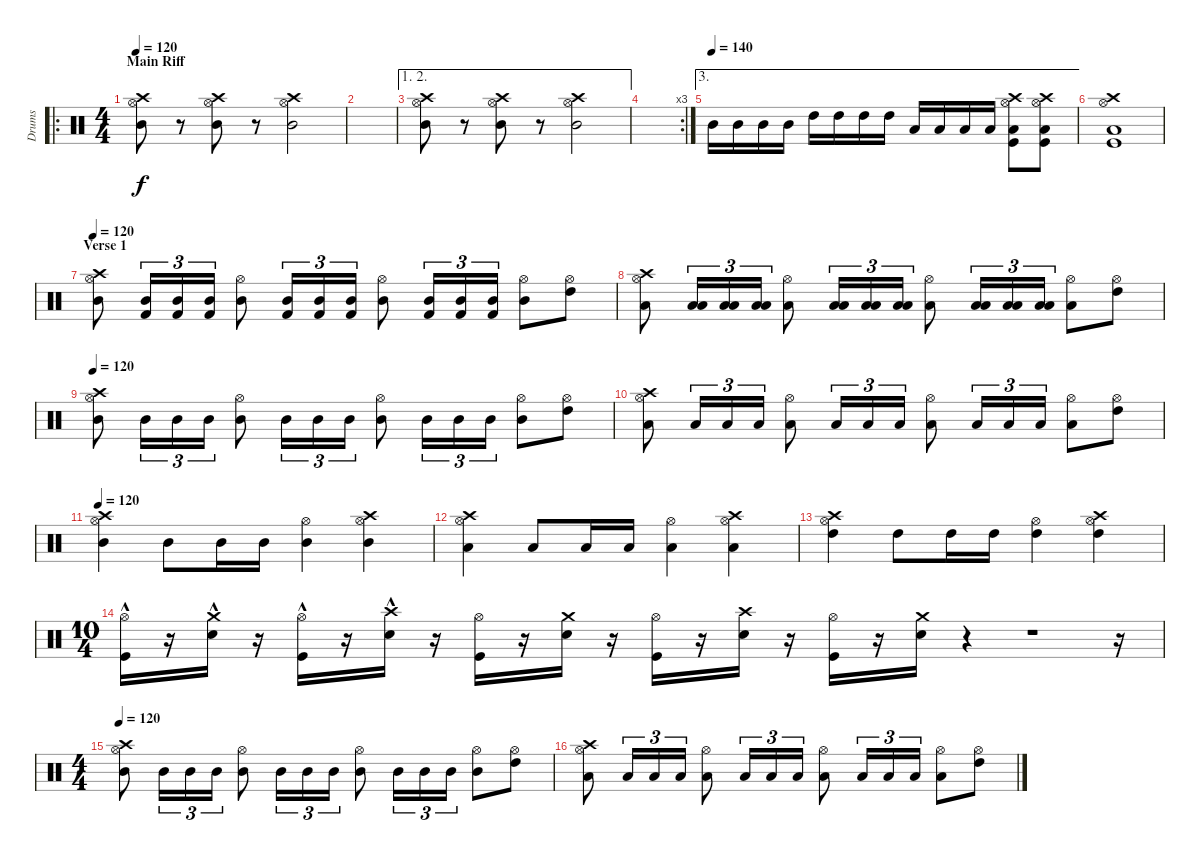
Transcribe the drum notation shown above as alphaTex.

\track ("Drums" "Drums") {instrument percussion}
\staff {score}
\articulation defaults
\ro
\ts (4 4)
\section ("" "Main Riff")
\tempo 120
\tempo 140
\tempo 120
\clef neutral
\ks c
("Hi-Hat (open)" "Crash high (hit)" "Mid Tom (hit)").8{dy f} r.8 ("Hi-Hat (open)" "Crash high (hit)" "Mid Tom (hit)").8 r.8 ("Hi-Hat (open)" "Crash high (hit)" "Mid Tom (hit)").2 |
|
\ae (1 2)
("Hi-Hat (open)" "Crash high (hit)" "Mid Tom (hit)").8 r.8 ("Hi-Hat (open)" "Crash high (hit)" "Mid Tom (hit)").8 r.8 ("Hi-Hat (open)" "Crash high (hit)" "Mid Tom (hit)").2 |
\rc 3
|
\ae 3
\tempo (140)
"Mid Tom (hit)".16 "Mid Tom (hit)".16 "Mid Tom (hit)".16 "Mid Tom (hit)".16 "High Tom (hit)".16 "High Tom (hit)".16 "High Tom (hit)".16 "High Tom (hit)".16 "Low Tom (hit)".16 "Low Tom (hit)".16 "Low Tom (hit)".16 "Low Tom (hit)".16 ("Kick (hit)" "Low Tom (hit)" "Crash high (hit)" "Hi-Hat (open)").8 ("Kick (hit)" "Low Tom (hit)" "Crash high (hit)" "Hi-Hat (open)").8 |
("Kick (hit)" "Low Tom (hit)" "Crash high (hit)" "Hi-Hat (open)").1 |
\section ("" "Verse 1")
\tempo 120
("Hi-Hat (open)" "Mid Tom (hit)" "Crash high (hit)").8 ("Kick (hit) 2" "Mid Tom (hit)").16{tu (3 2)} ("Kick (hit) 2" "Mid Tom (hit)").16{tu (3 2)} ("Kick (hit) 2" "Mid Tom (hit)").16{tu (3 2)} ("Hi-Hat (open)" "Mid Tom (hit)").8 ("Kick (hit) 2" "Mid Tom (hit)").16{tu (3 2)} ("Kick (hit) 2" "Mid Tom (hit)").16{tu (3 2)} ("Kick (hit) 2" "Mid Tom (hit)").16{tu (3 2)} ("Hi-Hat (open)" "Mid Tom (hit)").8 ("Kick (hit) 2" "Mid Tom (hit)").16{tu (3 2)} ("Kick (hit) 2" "Mid Tom (hit)").16{tu (3 2)} ("Kick (hit) 2" "Mid Tom (hit)").16{tu (3 2)} ("Hi-Hat (open)" "Mid Tom (hit)").8 ("Hi-Hat (open)" "High Tom (hit)").8 |
("Hi-Hat (open)" "Low Tom (hit)" "Crash high (hit)").8 ("Low Tom (hit)" "Low Tom (hit)").16{tu (3 2)} ("Low Tom (hit)" "Low Tom (hit)").16{tu (3 2)} ("Low Tom (hit)" "Low Tom (hit)").16{tu (3 2)} ("Hi-Hat (open)" "Low Tom (hit)").8 ("Low Tom (hit)" "Low Tom (hit)").16{tu (3 2)} ("Low Tom (hit)" "Low Tom (hit)").16{tu (3 2)} ("Low Tom (hit)" "Low Tom (hit)").16{tu (3 2)} ("Hi-Hat (open)" "Low Tom (hit)").8 ("Low Tom (hit)" "Low Tom (hit)").16{tu (3 2)} ("Low Tom (hit)" "Low Tom (hit)").16{tu (3 2)} ("Low Tom (hit)" "Low Tom (hit)").16{tu (3 2)} ("Hi-Hat (open)" "Low Tom (hit)").8 ("Hi-Hat (open)" "High Tom (hit)").8 |
\tempo 120
("Hi-Hat (open)" "Mid Tom (hit)" "Crash high (hit)").8 "Mid Tom (hit)".16{tu (3 2)} "Mid Tom (hit)".16{tu (3 2)} "Mid Tom (hit)".16{tu (3 2)} ("Hi-Hat (open)" "Mid Tom (hit)").8 "Mid Tom (hit)".16{tu (3 2)} "Mid Tom (hit)".16{tu (3 2)} "Mid Tom (hit)".16{tu (3 2)} ("Hi-Hat (open)" "Mid Tom (hit)").8 "Mid Tom (hit)".16{tu (3 2)} "Mid Tom (hit)".16{tu (3 2)} "Mid Tom (hit)".16{tu (3 2)} ("Hi-Hat (open)" "Mid Tom (hit)").8 ("Hi-Hat (open)" "High Tom (hit)").8 |
("Hi-Hat (open)" "Low Tom (hit)" "Crash high (hit)").8 "Low Tom (hit)".16{tu (3 2)} "Low Tom (hit)".16{tu (3 2)} "Low Tom (hit)".16{tu (3 2)} ("Hi-Hat (open)" "Low Tom (hit)").8 "Low Tom (hit)".16{tu (3 2)} "Low Tom (hit)".16{tu (3 2)} "Low Tom (hit)".16{tu (3 2)} ("Hi-Hat (open)" "Low Tom (hit)").8 "Low Tom (hit)".16{tu (3 2)} "Low Tom (hit)".16{tu (3 2)} "Low Tom (hit)".16{tu (3 2)} ("Hi-Hat (open)" "Low Tom (hit)").8 ("Hi-Hat (open)" "High Tom (hit)").8 |
\tempo 120
("Hi-Hat (open)" "Mid Tom (hit)" "Crash high (hit)").4 "Mid Tom (hit)".8 "Mid Tom (hit)".16 "Mid Tom (hit)".16 ("Hi-Hat (open)" "Mid Tom (hit)").4 ("Hi-Hat (open)" "Mid Tom (hit)" "Crash high (hit)").4 |
("Hi-Hat (open)" "Low Tom (hit)" "Crash high (hit)").4 "Low Tom (hit)".8 "Low Tom (hit)".16 "Low Tom (hit)".16 ("Hi-Hat (open)" "Low Tom (hit)").4 ("Hi-Hat (open)" "Low Tom (hit)" "Crash high (hit)").4 |
("Hi-Hat (open)" "High Tom (hit)" "Crash high (hit)").4 "High Tom (hit)".8 "High Tom (hit)".16 "High Tom (hit)".16 ("Hi-Hat (open)" "High Tom (hit)").4 ("Hi-Hat (open)" "High Tom (hit)" "Crash high (hit)").4 |
\ts (10 4)
("Hi-Hat (open)" "Kick (hit)"{hac}).16 r.16 ("Crash medium (hit)" "Snare (hit) 2"{hac}).16 r.16 ("Hi-Hat (open)" "Kick (hit)"{hac}).16 r.16 ("Crash high (hit)" "Snare (hit) 2"{hac}).16 r.16 ("Hi-Hat (open)" "Kick (hit)").16 r.16 ("Crash medium (hit)" "Snare (hit) 2").16 r.16 ("Hi-Hat (open)" "Kick (hit)").16 r.16 ("Crash high (hit)" "Snare (hit) 2").16 r.16 ("Hi-Hat (open)" "Kick (hit)").16 r.16 ("Crash medium (hit)" "Snare (hit) 2").16 r.4 r.1 r.16 |
\ts (4 4)
\tempo 120
("Hi-Hat (open)" "Mid Tom (hit)" "Crash high (hit)").8 "Mid Tom (hit)".16{tu (3 2)} "Mid Tom (hit)".16{tu (3 2)} "Mid Tom (hit)".16{tu (3 2)} ("Hi-Hat (open)" "Mid Tom (hit)").8 "Mid Tom (hit)".16{tu (3 2)} "Mid Tom (hit)".16{tu (3 2)} "Mid Tom (hit)".16{tu (3 2)} ("Hi-Hat (open)" "Mid Tom (hit)").8 "Mid Tom (hit)".16{tu (3 2)} "Mid Tom (hit)".16{tu (3 2)} "Mid Tom (hit)".16{tu (3 2)} ("Hi-Hat (open)" "Mid Tom (hit)").8 ("Hi-Hat (open)" "High Tom (hit)").8 |
("Hi-Hat (open)" "Low Tom (hit)" "Crash high (hit)").8 "Low Tom (hit)".16{tu (3 2)} "Low Tom (hit)".16{tu (3 2)} "Low Tom (hit)".16{tu (3 2)} ("Hi-Hat (open)" "Low Tom (hit)").8 "Low Tom (hit)".16{tu (3 2)} "Low Tom (hit)".16{tu (3 2)} "Low Tom (hit)".16{tu (3 2)} ("Hi-Hat (open)" "Low Tom (hit)").8 "Low Tom (hit)".16{tu (3 2)} "Low Tom (hit)".16{tu (3 2)} "Low Tom (hit)".16{tu (3 2)} ("Hi-Hat (open)" "Low Tom (hit)").8 ("Hi-Hat (open)" "High Tom (hit)").8
